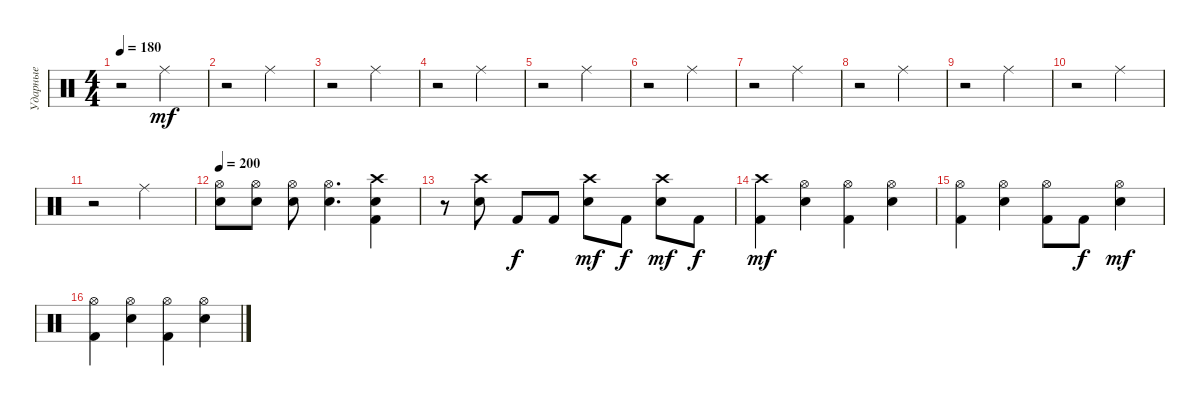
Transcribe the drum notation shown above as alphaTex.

\track ("Ударные" "Ударные") {instrument percussion}
\staff {score}
\articulation defaults
\ts (4 4)
\tempo 180
\clef neutral
\ks c
r.2{dy mf} "Ride (middle)".2 |
r.2 "Ride (middle)".2 |
r.2 "Ride (middle)".2 |
r.2 "Ride (middle)".2 |
r.2 "Ride (middle)".2 |
r.2 "Ride (middle)".2 |
r.2 "Ride (middle)".2 |
r.2 "Ride (middle)".2 |
r.2 "Ride (middle)".2 |
r.2 "Ride (middle)".2 |
r.2 "Ride (middle)".2 |
\tempo 200
("Electric Snare (hit)" "Hi-Hat (open)").8 ("Electric Snare (hit)" "Hi-Hat (open)").8 ("Electric Snare (hit)" "Hi-Hat (open)").8 ("Electric Snare (hit)" "Hi-Hat (open)").4{d} ("Kick (hit) 2" "Electric Snare (hit)" "Crash high (hit)").4 |
r.8 ("Electric Snare (hit)" "Crash high (hit)").8 "Kick (hit) 2".8{dy f} "Kick (hit) 2".8 ("Electric Snare (hit)" "Crash high (hit)").8{dy mf} "Kick (hit) 2".8{dy f} ("Electric Snare (hit)" "Crash high (hit)").8{dy mf} "Kick (hit) 2".8{dy f} |
("Kick (hit) 2" "Crash high (hit)").4{dy mf} ("Electric Snare (hit)" "Hi-Hat (open)").4 ("Kick (hit) 2" "Hi-Hat (open)").4 ("Electric Snare (hit)" "Hi-Hat (open)").4 |
("Kick (hit) 2" "Hi-Hat (open)").4 ("Electric Snare (hit)" "Hi-Hat (open)").4 ("Kick (hit) 2" "Hi-Hat (open)").8 "Kick (hit) 2".8{dy f} ("Electric Snare (hit)" "Hi-Hat (open)").4{dy mf} |
("Kick (hit) 2" "Hi-Hat (open)").4 ("Electric Snare (hit)" "Hi-Hat (open)").4 ("Kick (hit) 2" "Hi-Hat (open)").4 ("Electric Snare (hit)" "Hi-Hat (open)").4
